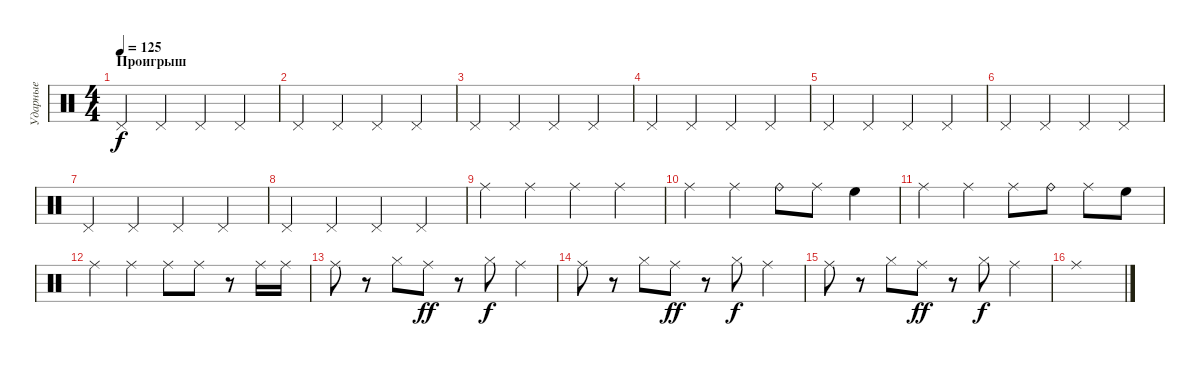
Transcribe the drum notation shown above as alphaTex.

\track ("Ударные" "Ударные") {instrument percussion}
\staff {score}
\articulation defaults
\ts (4 4)
\section ("" "Проигрыш")
\tempo 125
\clef neutral
\ks c "Pedal Hi-Hat (hit)".4{dy f} "Pedal Hi-Hat (hit)".4 "Pedal Hi-Hat (hit)".4 "Pedal Hi-Hat (hit)".4
|
"Pedal Hi-Hat (hit)".4 "Pedal Hi-Hat (hit)".4 "Pedal Hi-Hat (hit)".4 "Pedal Hi-Hat (hit)".4 |
"Pedal Hi-Hat (hit)".4 "Pedal Hi-Hat (hit)".4 "Pedal Hi-Hat (hit)".4 "Pedal Hi-Hat (hit)".4 |
"Pedal Hi-Hat (hit)".4 "Pedal Hi-Hat (hit)".4 "Pedal Hi-Hat (hit)".4 "Pedal Hi-Hat (hit)".4 |
"Pedal Hi-Hat (hit)".4 "Pedal Hi-Hat (hit)".4 "Pedal Hi-Hat (hit)".4 "Pedal Hi-Hat (hit)".4 |
"Pedal Hi-Hat (hit)".4 "Pedal Hi-Hat (hit)".4 "Pedal Hi-Hat (hit)".4 "Pedal Hi-Hat (hit)".4 |
"Pedal Hi-Hat (hit)".4 "Pedal Hi-Hat (hit)".4 "Pedal Hi-Hat (hit)".4 "Pedal Hi-Hat (hit)".4 |
"Pedal Hi-Hat (hit)".4 "Pedal Hi-Hat (hit)".4 "Pedal Hi-Hat (hit)".4 "Pedal Hi-Hat (hit)".4 |
"Ride (middle)".4 "Ride (middle)".4 "Ride (middle)".4 "Ride (middle)".4 |
"Ride (middle)".4 "Ride (middle)".4 "Ride (bell)".8 "Ride (middle)".8 "High Floor Tom (hit)".4 |
"Ride (middle)".4 "Ride (middle)".4 "Ride (middle)".8 "Ride (bell)".8 "Ride (middle)".8 "High Floor Tom (hit)".8 |
"Ride (middle)".4 "Ride (middle)".4 "Ride (middle)".8 "Ride (middle)".8 r.8 "Ride (middle)".16 "Ride (middle)".16 |
"Ride (middle)".8 r.8 "Hi-Hat (closed)".8 "Ride (middle)".8{dy ff} r.8 "Hi-Hat (closed)".8{dy f} "Ride (middle)".4 |
"Ride (middle)".8 r.8 "Hi-Hat (closed)".8 "Ride (middle)".8{dy ff} r.8 "Hi-Hat (closed)".8{dy f} "Ride (middle)".4 |
"Ride (middle)".8 r.8 "Hi-Hat (closed)".8 "Ride (middle)".8{dy ff} r.8 "Hi-Hat (closed)".8{dy f} "Ride (middle)".4 |
"Ride (middle)".1
